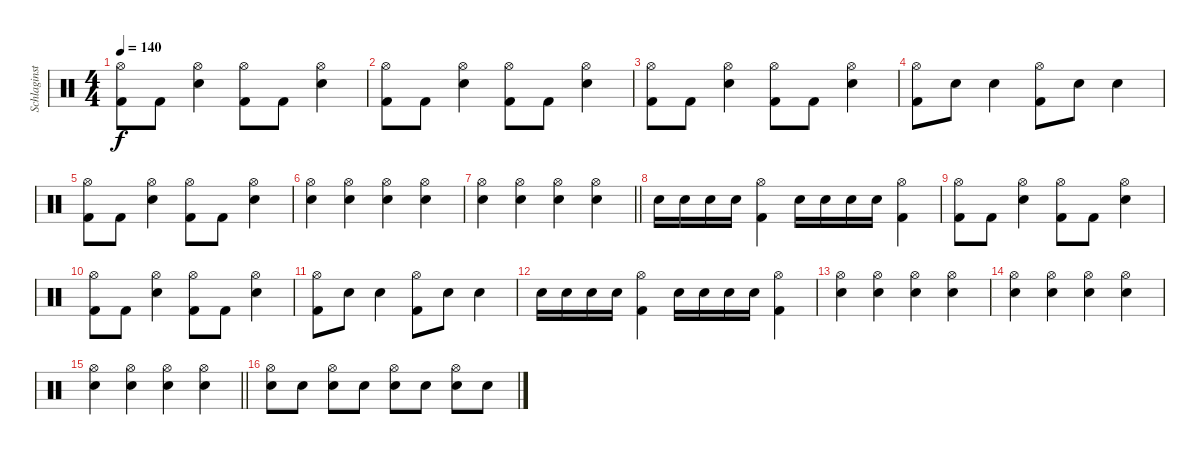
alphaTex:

\track ("Schlaginstrumente - Auswahl" "Schlaginst") {instrument percussion}
\staff {score}
\articulation defaults
\ts (4 4)
\tempo 140
\clef neutral
\ks c
("Hi-Hat (open)" "Kick (hit) 2").8{dy f} "Kick (hit) 2".8 ("Hi-Hat (open)" "Snare (hit) 2").4 ("Hi-Hat (open)" "Kick (hit) 2").8 "Kick (hit) 2".8 ("Hi-Hat (open)" "Snare (hit) 2").4 |
("Hi-Hat (open)" "Kick (hit) 2").8 "Kick (hit) 2".8 ("Hi-Hat (open)" "Snare (hit) 2").4 ("Hi-Hat (open)" "Kick (hit) 2").8 "Kick (hit) 2".8 ("Hi-Hat (open)" "Snare (hit) 2").4 |
("Hi-Hat (open)" "Kick (hit) 2").8 "Kick (hit) 2".8 ("Hi-Hat (open)" "Snare (hit) 2").4 ("Hi-Hat (open)" "Kick (hit) 2").8 "Kick (hit) 2".8 ("Hi-Hat (open)" "Snare (hit) 2").4 |
("Hi-Hat (open)" "Kick (hit) 2").8 "Snare (hit) 2".8 "Snare (hit) 2".4 ("Hi-Hat (open)" "Kick (hit) 2").8 "Snare (hit) 2".8 "Snare (hit) 2".4 |
("Hi-Hat (open)" "Kick (hit) 2").8 "Kick (hit) 2".8 ("Hi-Hat (open)" "Snare (hit) 2").4 ("Hi-Hat (open)" "Kick (hit) 2").8 "Kick (hit) 2".8 ("Hi-Hat (open)" "Snare (hit) 2").4 |
("Hi-Hat (open)" "Snare (hit) 2").4 ("Hi-Hat (open)" "Snare (hit) 2").4 ("Hi-Hat (open)" "Snare (hit) 2").4 ("Hi-Hat (open)" "Snare (hit) 2").4 |
\barLineRight lightlight
("Hi-Hat (open)" "Snare (hit) 2").4 ("Hi-Hat (open)" "Snare (hit) 2").4 ("Hi-Hat (open)" "Snare (hit) 2").4 ("Hi-Hat (open)" "Snare (hit) 2").4 |
"Snare (hit) 2".16 "Snare (hit) 2".16 "Snare (hit) 2".16 "Snare (hit) 2".16 ("Hi-Hat (open)" "Kick (hit) 2").4 "Snare (hit) 2".16 "Snare (hit) 2".16 "Snare (hit) 2".16 "Snare (hit) 2".16 ("Hi-Hat (open)" "Kick (hit) 2").4 |
("Hi-Hat (open)" "Kick (hit) 2").8 "Kick (hit) 2".8 ("Hi-Hat (open)" "Snare (hit) 2").4 ("Hi-Hat (open)" "Kick (hit) 2").8 "Kick (hit) 2".8 ("Hi-Hat (open)" "Snare (hit) 2").4 |
("Hi-Hat (open)" "Kick (hit) 2").8 "Kick (hit) 2".8 ("Hi-Hat (open)" "Snare (hit) 2").4 ("Hi-Hat (open)" "Kick (hit) 2").8 "Kick (hit) 2".8 ("Hi-Hat (open)" "Snare (hit) 2").4 |
("Hi-Hat (open)" "Kick (hit) 2").8 "Snare (hit) 2".8 "Snare (hit) 2".4 ("Hi-Hat (open)" "Kick (hit) 2").8 "Snare (hit) 2".8 "Snare (hit) 2".4 |
"Snare (hit) 2".16 "Snare (hit) 2".16 "Snare (hit) 2".16 "Snare (hit) 2".16 ("Hi-Hat (open)" "Kick (hit) 2").4 "Snare (hit) 2".16 "Snare (hit) 2".16 "Snare (hit) 2".16 "Snare (hit) 2".16 ("Hi-Hat (open)" "Kick (hit) 2").4 |
("Hi-Hat (open)" "Snare (hit) 2").4 ("Hi-Hat (open)" "Snare (hit) 2").4 ("Hi-Hat (open)" "Snare (hit) 2").4 ("Hi-Hat (open)" "Snare (hit) 2").4 |
("Hi-Hat (open)" "Snare (hit) 2").4 ("Hi-Hat (open)" "Snare (hit) 2").4 ("Hi-Hat (open)" "Snare (hit) 2").4 ("Hi-Hat (open)" "Snare (hit) 2").4 |
\barLineRight lightlight
("Hi-Hat (open)" "Snare (hit) 2").4 ("Hi-Hat (open)" "Snare (hit) 2").4 ("Hi-Hat (open)" "Snare (hit) 2").4 ("Hi-Hat (open)" "Snare (hit) 2").4 |
("Hi-Hat (open)" "Snare (hit) 2").8 "Snare (hit) 2".8 ("Hi-Hat (open)" "Snare (hit) 2").8 "Snare (hit) 2".8 ("Hi-Hat (open)" "Snare (hit) 2").8 "Snare (hit) 2".8 ("Hi-Hat (open)" "Snare (hit) 2").8 "Snare (hit) 2".8
